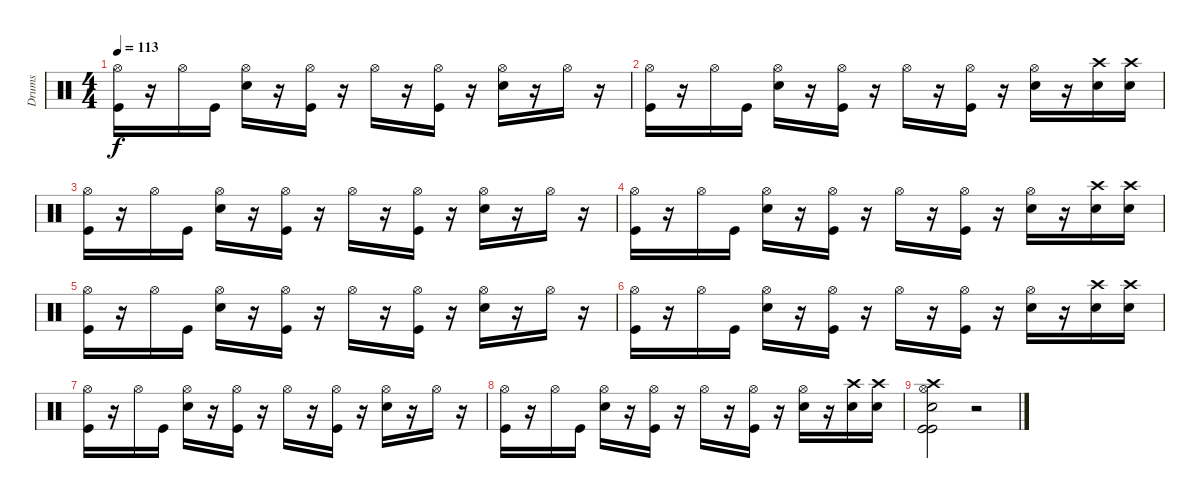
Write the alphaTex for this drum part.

\track ("Drums" "Drums") {instrument percussion}
\staff {score}
\articulation defaults
\ts (4 4)
\tempo 113
\clef neutral
\ks c
("Hi-Hat (open)" "Kick (hit)").16{dy f} r.16 "Hi-Hat (open)".16 "Kick (hit)".16 ("Hi-Hat (open)" "Snare (hit) 2").16 r.16 ("Hi-Hat (open)" "Kick (hit)").16 r.16 "Hi-Hat (open)".16 r.16 ("Hi-Hat (open)" "Kick (hit)").16 r.16 ("Hi-Hat (open)" "Snare (hit) 2").16 r.16 "Hi-Hat (open)".16 r.16 |
("Hi-Hat (open)" "Kick (hit)").16 r.16 "Hi-Hat (open)".16 "Kick (hit)".16 ("Hi-Hat (open)" "Snare (hit) 2").16 r.16 ("Hi-Hat (open)" "Kick (hit)").16 r.16 "Hi-Hat (open)".16 r.16 ("Hi-Hat (open)" "Kick (hit)").16 r.16 ("Hi-Hat (open)" "Snare (hit) 2").16 r.16 ("Crash high (hit)" "Snare (hit) 2").16 ("Crash high (hit)" "Snare (hit) 2").16 |
("Hi-Hat (open)" "Kick (hit)").16 r.16 "Hi-Hat (open)".16 "Kick (hit)".16 ("Hi-Hat (open)" "Snare (hit) 2").16 r.16 ("Hi-Hat (open)" "Kick (hit)").16 r.16 "Hi-Hat (open)".16 r.16 ("Hi-Hat (open)" "Kick (hit)").16 r.16 ("Hi-Hat (open)" "Snare (hit) 2").16 r.16 "Hi-Hat (open)".16 r.16 |
("Hi-Hat (open)" "Kick (hit)").16 r.16 "Hi-Hat (open)".16 "Kick (hit)".16 ("Hi-Hat (open)" "Snare (hit) 2").16 r.16 ("Hi-Hat (open)" "Kick (hit)").16 r.16 "Hi-Hat (open)".16 r.16 ("Hi-Hat (open)" "Kick (hit)").16 r.16 ("Hi-Hat (open)" "Snare (hit) 2").16 r.16 ("Crash high (hit)" "Snare (hit) 2").16 ("Crash high (hit)" "Snare (hit) 2").16 |
("Hi-Hat (open)" "Kick (hit)").16 r.16 "Hi-Hat (open)".16 "Kick (hit)".16 ("Hi-Hat (open)" "Snare (hit) 2").16 r.16 ("Hi-Hat (open)" "Kick (hit)").16 r.16 "Hi-Hat (open)".16 r.16 ("Hi-Hat (open)" "Kick (hit)").16 r.16 ("Hi-Hat (open)" "Snare (hit) 2").16 r.16 "Hi-Hat (open)".16 r.16 |
("Hi-Hat (open)" "Kick (hit)").16 r.16 "Hi-Hat (open)".16 "Kick (hit)".16 ("Hi-Hat (open)" "Snare (hit) 2").16 r.16 ("Hi-Hat (open)" "Kick (hit)").16 r.16 "Hi-Hat (open)".16 r.16 ("Hi-Hat (open)" "Kick (hit)").16 r.16 ("Hi-Hat (open)" "Snare (hit) 2").16 r.16 ("Crash high (hit)" "Snare (hit) 2").16 ("Crash high (hit)" "Snare (hit) 2").16 |
("Hi-Hat (open)" "Kick (hit)").16 r.16 "Hi-Hat (open)".16 "Kick (hit)".16 ("Hi-Hat (open)" "Snare (hit) 2").16 r.16 ("Hi-Hat (open)" "Kick (hit)").16 r.16 "Hi-Hat (open)".16 r.16 ("Hi-Hat (open)" "Kick (hit)").16 r.16 ("Hi-Hat (open)" "Snare (hit) 2").16 r.16 "Hi-Hat (open)".16 r.16 |
("Hi-Hat (open)" "Kick (hit)").16 r.16 "Hi-Hat (open)".16 "Kick (hit)".16 ("Hi-Hat (open)" "Snare (hit) 2").16 r.16 ("Hi-Hat (open)" "Kick (hit)").16 r.16 "Hi-Hat (open)".16 r.16 ("Hi-Hat (open)" "Kick (hit)").16 r.16 ("Hi-Hat (open)" "Snare (hit) 2").16 r.16 ("Crash high (hit)" "Snare (hit) 2").16 ("Crash high (hit)" "Snare (hit) 2").16 |
("Crash high (hit)" "Hi-Hat (open)" "Snare (hit) 2" "Kick (hit)" "Kick (hit)").2 r.2
